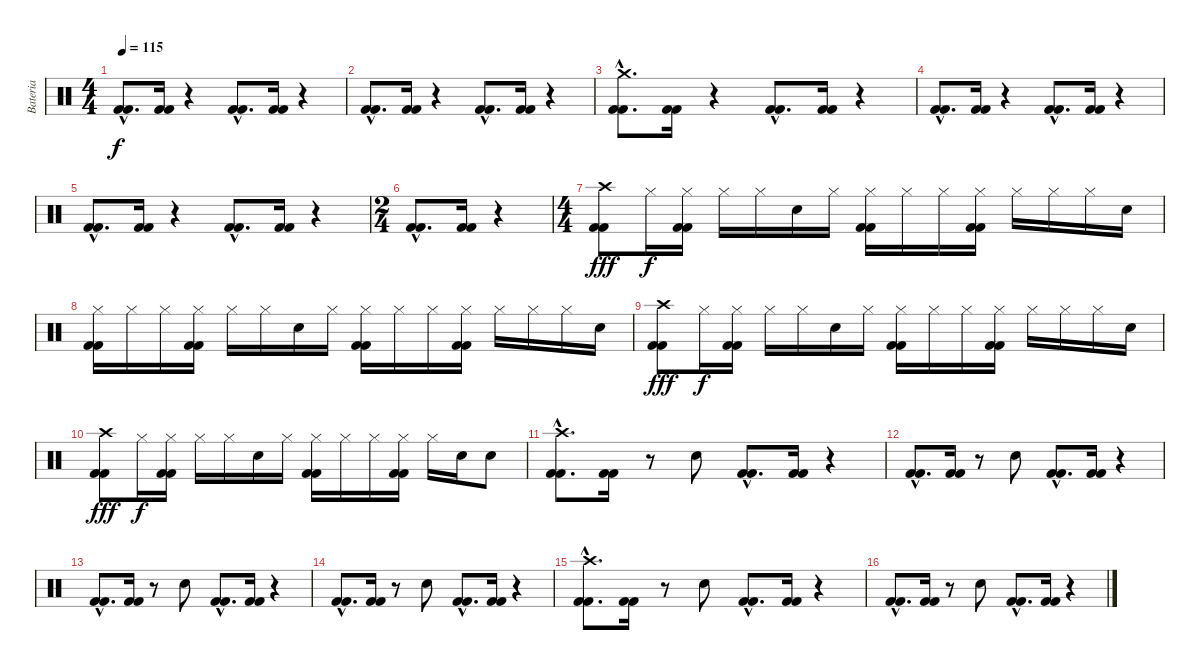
\track ("Bateria" "Bateria") {instrument percussion}
\staff {score}
\articulation defaults
\ts (4 4)
\tempo 115
\clef neutral
\ks c
("Kick (hit) 2"{hac} "Kick (hit) 2"{hac}).8{d dy f} ("Kick (hit) 2" "Kick (hit) 2").16 r.4 ("Kick (hit) 2"{hac} "Kick (hit) 2"{hac}).8{d} ("Kick (hit) 2" "Kick (hit) 2").16 r.4 |
("Kick (hit) 2"{hac} "Kick (hit) 2"{hac}).8{d} ("Kick (hit) 2" "Kick (hit) 2").16 r.4 ("Kick (hit) 2"{hac} "Kick (hit) 2"{hac}).8{d} ("Kick (hit) 2" "Kick (hit) 2").16 r.4 |
("Crash medium (hit)"{hac} "Kick (hit) 2"{hac} "Kick (hit) 2"{hac}).8{d} ("Kick (hit) 2" "Kick (hit) 2").16 r.4 ("Kick (hit) 2"{hac} "Kick (hit) 2"{hac}).8{d} ("Kick (hit) 2" "Kick (hit) 2").16 r.4 |
("Kick (hit) 2"{hac} "Kick (hit) 2"{hac}).8{d} ("Kick (hit) 2" "Kick (hit) 2").16 r.4 ("Kick (hit) 2"{hac} "Kick (hit) 2"{hac}).8{d} ("Kick (hit) 2" "Kick (hit) 2").16 r.4 |
("Kick (hit) 2"{hac} "Kick (hit) 2"{hac}).8{d} ("Kick (hit) 2" "Kick (hit) 2").16 r.4 ("Kick (hit) 2"{hac} "Kick (hit) 2"{hac}).8{d} ("Kick (hit) 2" "Kick (hit) 2").16 r.4 |
\ts (2 4)
("Kick (hit) 2"{hac} "Kick (hit) 2"{hac}).8{d} ("Kick (hit) 2" "Kick (hit) 2").16 r.4 |
\ts (4 4)
("Crash high (hit)" "Kick (hit) 2" "Kick (hit) 2").8{dy fff} "Hi-Hat (closed)".16{dy f} ("Hi-Hat (closed)" "Kick (hit) 2" "Kick (hit) 2").16 "Hi-Hat (closed)".16 "Hi-Hat (closed)".16 "Electric Snare (hit)".16 "Hi-Hat (closed)".16 ("Hi-Hat (closed)" "Kick (hit) 2" "Kick (hit) 2").16 "Hi-Hat (closed)".16 "Hi-Hat (closed)".16 ("Hi-Hat (closed)" "Kick (hit) 2" "Kick (hit) 2").16 "Hi-Hat (closed)".16 "Hi-Hat (closed)".16 "Hi-Hat (closed)".16 "Electric Snare (hit)".16 |
("Hi-Hat (closed)" "Kick (hit) 2" "Kick (hit) 2").16 "Hi-Hat (closed)".16 "Hi-Hat (closed)".16 ("Hi-Hat (closed)" "Kick (hit) 2" "Kick (hit) 2").16 "Hi-Hat (closed)".16 "Hi-Hat (closed)".16 "Electric Snare (hit)".16 "Hi-Hat (closed)".16 ("Hi-Hat (closed)" "Kick (hit) 2" "Kick (hit) 2").16 "Hi-Hat (closed)".16 "Hi-Hat (closed)".16 ("Hi-Hat (closed)" "Kick (hit) 2" "Kick (hit) 2").16 "Hi-Hat (closed)".16 "Hi-Hat (closed)".16 "Hi-Hat (closed)".16 "Electric Snare (hit)".16 |
("Crash high (hit)" "Kick (hit) 2" "Kick (hit) 2").8{dy fff} "Hi-Hat (closed)".16{dy f} ("Hi-Hat (closed)" "Kick (hit) 2" "Kick (hit) 2").16 "Hi-Hat (closed)".16 "Hi-Hat (closed)".16 "Electric Snare (hit)".16 "Hi-Hat (closed)".16 ("Hi-Hat (closed)" "Kick (hit) 2" "Kick (hit) 2").16 "Hi-Hat (closed)".16 "Hi-Hat (closed)".16 ("Hi-Hat (closed)" "Kick (hit) 2" "Kick (hit) 2").16 "Hi-Hat (closed)".16 "Hi-Hat (closed)".16 "Hi-Hat (closed)".16 "Electric Snare (hit)".16 |
("Crash high (hit)" "Kick (hit) 2" "Kick (hit) 2").8{dy fff} "Hi-Hat (closed)".16{dy f} ("Hi-Hat (closed)" "Kick (hit) 2" "Kick (hit) 2").16 "Hi-Hat (closed)".16 "Hi-Hat (closed)".16 "Electric Snare (hit)".16 "Hi-Hat (closed)".16 ("Hi-Hat (closed)" "Kick (hit) 2" "Kick (hit) 2").16 "Hi-Hat (closed)".16 "Hi-Hat (closed)".16 ("Hi-Hat (closed)" "Kick (hit) 2" "Kick (hit) 2").16 "Hi-Hat (closed)".16 "Electric Snare (hit)".16 "Electric Snare (hit)".8 |
("Crash high (hit)"{hac} "Kick (hit) 2"{hac} "Kick (hit) 2"{hac}).8{d} ("Kick (hit) 2" "Kick (hit) 2").16 r.8 "Electric Snare (hit)".8 ("Kick (hit) 2"{hac} "Kick (hit) 2"{hac}).8{d} ("Kick (hit) 2" "Kick (hit) 2").16 r.4 |
("Kick (hit) 2"{hac} "Kick (hit) 2"{hac}).8{d} ("Kick (hit) 2" "Kick (hit) 2").16 r.8 "Electric Snare (hit)".8 ("Kick (hit) 2"{hac} "Kick (hit) 2"{hac}).8{d} ("Kick (hit) 2" "Kick (hit) 2").16 r.4 |
("Kick (hit) 2"{hac} "Kick (hit) 2"{hac}).8{d} ("Kick (hit) 2" "Kick (hit) 2").16 r.8 "Electric Snare (hit)".8 ("Kick (hit) 2"{hac} "Kick (hit) 2"{hac}).8{d} ("Kick (hit) 2" "Kick (hit) 2").16 r.4 |
("Kick (hit) 2"{hac} "Kick (hit) 2"{hac}).8{d} ("Kick (hit) 2" "Kick (hit) 2").16 r.8 "Electric Snare (hit)".8 ("Kick (hit) 2"{hac} "Kick (hit) 2"{hac}).8{d} ("Kick (hit) 2" "Kick (hit) 2").16 r.4 |
("Crash high (hit)"{hac} "Kick (hit) 2"{hac} "Kick (hit) 2"{hac}).8{d} ("Kick (hit) 2" "Kick (hit) 2").16 r.8 "Electric Snare (hit)".8 ("Kick (hit) 2"{hac} "Kick (hit) 2"{hac}).8{d} ("Kick (hit) 2" "Kick (hit) 2").16 r.4 |
("Kick (hit) 2"{hac} "Kick (hit) 2"{hac}).8{d} ("Kick (hit) 2" "Kick (hit) 2").16 r.8 "Electric Snare (hit)".8 ("Kick (hit) 2"{hac} "Kick (hit) 2"{hac}).8{d} ("Kick (hit) 2" "Kick (hit) 2").16 r.4
